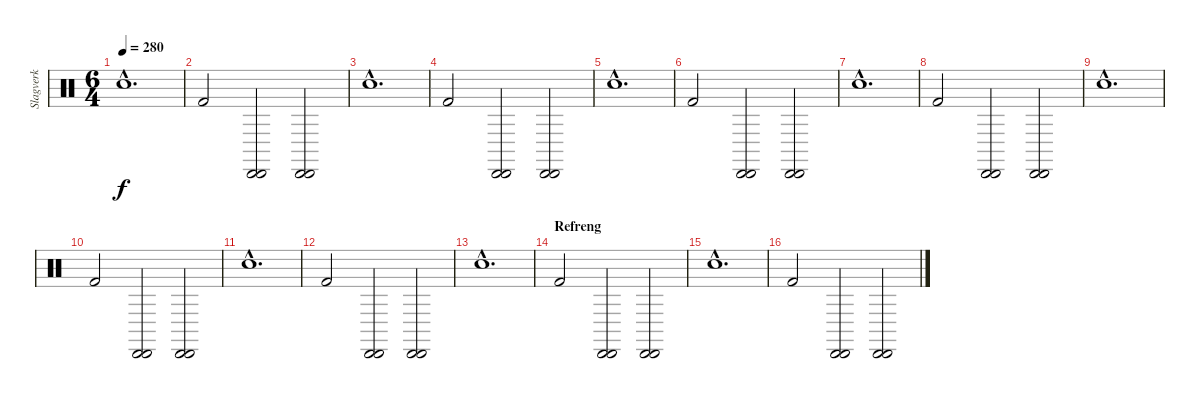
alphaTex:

\track ("Slagverk" "Slagverk") {instrument percussion}
\staff {score}
\articulation defaults
\ts (6 4)
\tempo 280
\clef neutral
\ks c "Snare (hit) 2"{hac}.1{d dy f}
|
"Kick (hit) 2".2 ("Cabasa (hit)" "Cabasa (hit)").2 ("Cabasa (hit)" "Cabasa (hit)").2 |
"Snare (hit) 2"{hac}.1{d} |
"Kick (hit) 2".2 ("Cabasa (hit)" "Cabasa (hit)").2 ("Cabasa (hit)" "Cabasa (hit)").2 |
"Snare (hit) 2"{hac}.1{d} |
"Kick (hit) 2".2 ("Cabasa (hit)" "Cabasa (hit)").2 ("Cabasa (hit)" "Cabasa (hit)").2 |
"Snare (hit) 2"{hac}.1{d} |
"Kick (hit) 2".2 ("Cabasa (hit)" "Cabasa (hit)").2 ("Cabasa (hit)" "Cabasa (hit)").2 |
"Snare (hit) 2"{hac}.1{d} |
"Kick (hit) 2".2 ("Cabasa (hit)" "Cabasa (hit)").2 ("Cabasa (hit)" "Cabasa (hit)").2 |
"Snare (hit) 2"{hac}.1{d} |
"Kick (hit) 2".2 ("Cabasa (hit)" "Cabasa (hit)").2 ("Cabasa (hit)" "Cabasa (hit)").2 |
"Snare (hit) 2"{hac}.1{d} |
\section ("" "Refreng")
"Kick (hit) 2".2 ("Cabasa (hit)" "Cabasa (hit)").2 ("Cabasa (hit)" "Cabasa (hit)").2 |
"Snare (hit) 2"{hac}.1{d} |
"Kick (hit) 2".2 ("Cabasa (hit)" "Cabasa (hit)").2 ("Cabasa (hit)" "Cabasa (hit)").2
